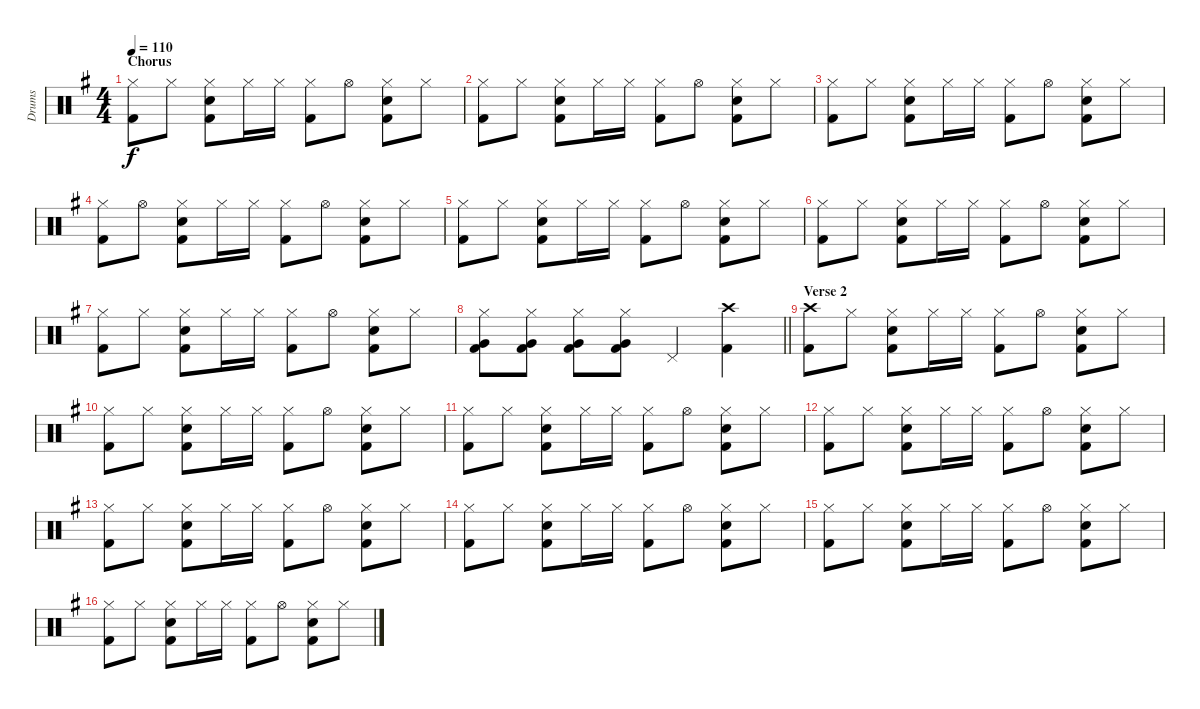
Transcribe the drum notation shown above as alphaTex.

\track ("Drums" "Drums") {instrument percussion}
\staff {score}
\articulation defaults
\ts (4 4)
\section ("" "Chorus")
\tempo 110
\clef neutral
\ks eminor
("Hi-Hat (closed)" "Kick (hit) 2").8{dy f} "Hi-Hat (closed)".8 ("Hi-Hat (closed)" "Snare (hit) 2" "Kick (hit) 2").8 "Hi-Hat (closed)".16 "Hi-Hat (closed)".16 ("Hi-Hat (closed)" "Kick (hit) 2").8 "Hi-Hat (open)".8 ("Hi-Hat (closed)" "Snare (hit) 2" "Kick (hit) 2").8 "Hi-Hat (closed)".8 |
("Hi-Hat (closed)" "Kick (hit) 2").8 "Hi-Hat (closed)".8 ("Hi-Hat (closed)" "Snare (hit) 2" "Kick (hit) 2").8 "Hi-Hat (closed)".16 "Hi-Hat (closed)".16 ("Hi-Hat (closed)" "Kick (hit) 2").8 "Hi-Hat (open)".8 ("Hi-Hat (closed)" "Snare (hit) 2" "Kick (hit) 2").8 "Hi-Hat (closed)".8 |
("Hi-Hat (closed)" "Kick (hit) 2").8 "Hi-Hat (closed)".8 ("Hi-Hat (closed)" "Snare (hit) 2" "Kick (hit) 2").8 "Hi-Hat (closed)".16 "Hi-Hat (closed)".16 ("Hi-Hat (closed)" "Kick (hit) 2").8 "Hi-Hat (open)".8 ("Hi-Hat (closed)" "Snare (hit) 2" "Kick (hit) 2").8 "Hi-Hat (closed)".8 |
("Hi-Hat (closed)" "Kick (hit) 2").8 "Hi-Hat (open)".8 ("Hi-Hat (closed)" "Snare (hit) 2" "Kick (hit) 2").8 "Hi-Hat (closed)".16 "Hi-Hat (closed)".16 ("Hi-Hat (closed)" "Kick (hit) 2").8 "Hi-Hat (open)".8 ("Hi-Hat (closed)" "Snare (hit) 2" "Kick (hit) 2").8 "Hi-Hat (closed)".8 |
("Hi-Hat (closed)" "Kick (hit) 2").8 "Hi-Hat (closed)".8 ("Hi-Hat (closed)" "Snare (hit) 2" "Kick (hit) 2").8 "Hi-Hat (closed)".16 "Hi-Hat (closed)".16 ("Hi-Hat (closed)" "Kick (hit) 2").8 "Hi-Hat (open)".8 ("Hi-Hat (closed)" "Snare (hit) 2" "Kick (hit) 2").8 "Hi-Hat (closed)".8 |
("Hi-Hat (closed)" "Kick (hit) 2").8 "Hi-Hat (closed)".8 ("Hi-Hat (closed)" "Snare (hit) 2" "Kick (hit) 2").8 "Hi-Hat (closed)".16 "Hi-Hat (closed)".16 ("Hi-Hat (closed)" "Kick (hit) 2").8 "Hi-Hat (open)".8 ("Hi-Hat (closed)" "Snare (hit) 2" "Kick (hit) 2").8 "Hi-Hat (closed)".8 |
("Hi-Hat (closed)" "Kick (hit) 2").8 "Hi-Hat (closed)".8 ("Hi-Hat (closed)" "Snare (hit) 2" "Kick (hit) 2").8 "Hi-Hat (closed)".16 "Hi-Hat (closed)".16 ("Hi-Hat (closed)" "Kick (hit) 2").8 "Hi-Hat (open)".8 ("Hi-Hat (closed)" "Snare (hit) 2" "Kick (hit) 2").8 "Hi-Hat (closed)".8 |
\barLineRight lightlight
("Hi-Hat (closed)" "Very Low Tom (hit)" "Kick (hit) 2").8 ("Hi-Hat (closed)" "Very Low Tom (hit)" "Kick (hit) 2").8 ("Hi-Hat (closed)" "Very Low Tom (hit)" "Kick (hit) 2").8 ("Hi-Hat (closed)" "Very Low Tom (hit)" "Kick (hit) 2").8 "Pedal Hi-Hat (hit)".4 ("Crash high (hit)" "Kick (hit) 2").4 |
\section ("" "Verse 2")
("Crash high (hit)" "Kick (hit) 2").8 "Hi-Hat (closed)".8 ("Hi-Hat (closed)" "Snare (hit) 2" "Kick (hit) 2").8 "Hi-Hat (closed)".16 "Hi-Hat (closed)".16 ("Hi-Hat (closed)" "Kick (hit) 2").8 "Hi-Hat (open)".8 ("Hi-Hat (closed)" "Snare (hit) 2" "Kick (hit) 2").8 "Hi-Hat (closed)".8 |
("Hi-Hat (closed)" "Kick (hit) 2").8 "Hi-Hat (closed)".8 ("Hi-Hat (closed)" "Snare (hit) 2" "Kick (hit) 2").8 "Hi-Hat (closed)".16 "Hi-Hat (closed)".16 ("Hi-Hat (closed)" "Kick (hit) 2").8 "Hi-Hat (open)".8 ("Hi-Hat (closed)" "Snare (hit) 2" "Kick (hit) 2").8 "Hi-Hat (closed)".8 |
("Hi-Hat (closed)" "Kick (hit) 2").8 "Hi-Hat (closed)".8 ("Hi-Hat (closed)" "Snare (hit) 2" "Kick (hit) 2").8 "Hi-Hat (closed)".16 "Hi-Hat (closed)".16 ("Hi-Hat (closed)" "Kick (hit) 2").8 "Hi-Hat (open)".8 ("Hi-Hat (closed)" "Snare (hit) 2" "Kick (hit) 2").8 "Hi-Hat (closed)".8 |
("Hi-Hat (closed)" "Kick (hit) 2").8 "Hi-Hat (closed)".8 ("Hi-Hat (closed)" "Snare (hit) 2" "Kick (hit) 2").8 "Hi-Hat (closed)".16 "Hi-Hat (closed)".16 ("Hi-Hat (closed)" "Kick (hit) 2").8 "Hi-Hat (open)".8 ("Hi-Hat (closed)" "Snare (hit) 2" "Kick (hit) 2").8 "Hi-Hat (closed)".8 |
("Hi-Hat (closed)" "Kick (hit) 2").8 "Hi-Hat (closed)".8 ("Hi-Hat (closed)" "Snare (hit) 2" "Kick (hit) 2").8 "Hi-Hat (closed)".16 "Hi-Hat (closed)".16 ("Hi-Hat (closed)" "Kick (hit) 2").8 "Hi-Hat (open)".8 ("Hi-Hat (closed)" "Snare (hit) 2" "Kick (hit) 2").8 "Hi-Hat (closed)".8 |
("Hi-Hat (closed)" "Kick (hit) 2").8 "Hi-Hat (closed)".8 ("Hi-Hat (closed)" "Snare (hit) 2" "Kick (hit) 2").8 "Hi-Hat (closed)".16 "Hi-Hat (closed)".16 ("Hi-Hat (closed)" "Kick (hit) 2").8 "Hi-Hat (open)".8 ("Hi-Hat (closed)" "Snare (hit) 2" "Kick (hit) 2").8 "Hi-Hat (closed)".8 |
("Hi-Hat (closed)" "Kick (hit) 2").8 "Hi-Hat (closed)".8 ("Hi-Hat (closed)" "Snare (hit) 2" "Kick (hit) 2").8 "Hi-Hat (closed)".16 "Hi-Hat (closed)".16 ("Hi-Hat (closed)" "Kick (hit) 2").8 "Hi-Hat (open)".8 ("Hi-Hat (closed)" "Snare (hit) 2" "Kick (hit) 2").8 "Hi-Hat (closed)".8 |
("Hi-Hat (closed)" "Kick (hit) 2").8 "Hi-Hat (closed)".8 ("Hi-Hat (closed)" "Snare (hit) 2" "Kick (hit) 2").8 "Hi-Hat (closed)".16 "Hi-Hat (closed)".16 ("Hi-Hat (closed)" "Kick (hit) 2").8 "Hi-Hat (open)".8 ("Hi-Hat (closed)" "Snare (hit) 2" "Kick (hit) 2").8 "Hi-Hat (closed)".8
